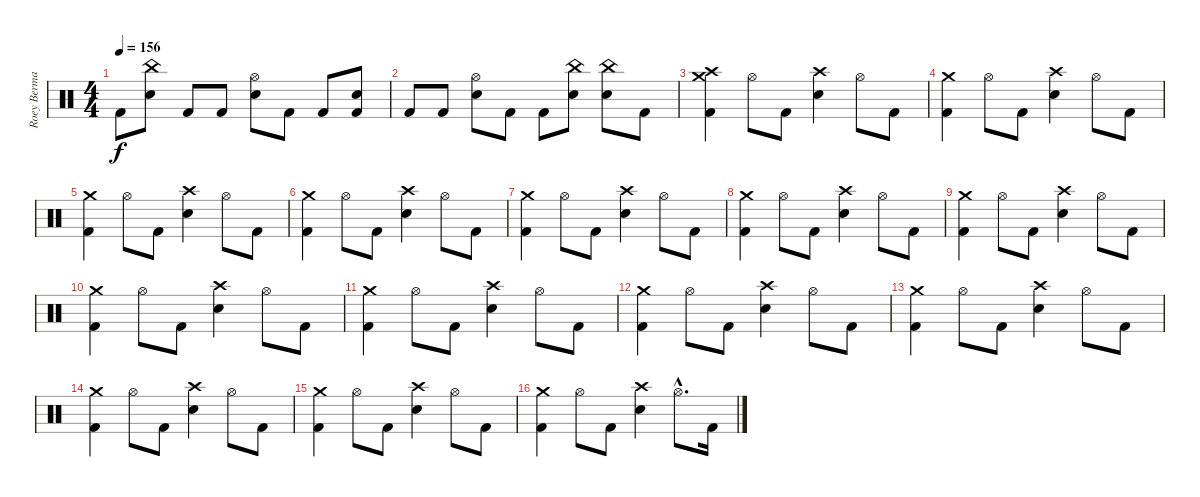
\track ("Roey Berman" "Roey Berma") {instrument percussion}
\staff {score}
\articulation defaults
\ts (4 4)
\tempo 156
\clef neutral
\ks c "Kick (hit) 2".8{dy f}
("China (hit)" "Electric Snare (hit)").8 "Kick (hit) 2".8 "Kick (hit) 2".8 ("Hi-Hat (open)" "Electric Snare (hit)").8 "Kick (hit) 2".8 "Kick (hit) 2".8 ("Snare (hit) 2" "Kick (hit) 2").8 |
"Kick (hit) 2".8 "Kick (hit) 2".8 ("Hi-Hat (open)" "Electric Snare (hit)").8 "Kick (hit) 2".8 "Kick (hit) 2".8 ("China (hit)" "Electric Snare (hit)").8 ("China (hit)" "Electric Snare (hit)").8 "Kick (hit) 2".8 |
("Crash medium (hit)" "Crash high (hit)" "Kick (hit) 2").4 "Hi-Hat (open)".8 "Kick (hit) 2".8 ("Crash high (hit)" "Electric Snare (hit)").4 "Hi-Hat (open)".8 "Kick (hit) 2".8 |
("Crash medium (hit)" "Kick (hit) 2").4 "Hi-Hat (open)".8 "Kick (hit) 2".8 ("Crash high (hit)" "Electric Snare (hit)").4 "Hi-Hat (open)".8 "Kick (hit) 2".8 |
("Crash medium (hit)" "Kick (hit) 2").4 "Hi-Hat (open)".8 "Kick (hit) 2".8 ("Crash high (hit)" "Electric Snare (hit)").4 "Hi-Hat (open)".8 "Kick (hit) 2".8 |
("Crash medium (hit)" "Kick (hit) 2").4 "Hi-Hat (open)".8 "Kick (hit) 2".8 ("Crash high (hit)" "Electric Snare (hit)").4 "Hi-Hat (open)".8 "Kick (hit) 2".8 |
("Crash medium (hit)" "Kick (hit) 2").4 "Hi-Hat (open)".8 "Kick (hit) 2".8 ("Crash high (hit)" "Electric Snare (hit)").4 "Hi-Hat (open)".8 "Kick (hit) 2".8 |
("Crash medium (hit)" "Kick (hit) 2").4 "Hi-Hat (open)".8 "Kick (hit) 2".8 ("Crash high (hit)" "Electric Snare (hit)").4 "Hi-Hat (open)".8 "Kick (hit) 2".8 |
("Crash medium (hit)" "Kick (hit) 2").4 "Hi-Hat (open)".8 "Kick (hit) 2".8 ("Crash high (hit)" "Electric Snare (hit)").4 "Hi-Hat (open)".8 "Kick (hit) 2".8 |
("Crash medium (hit)" "Kick (hit) 2").4 "Hi-Hat (open)".8 "Kick (hit) 2".8 ("Crash high (hit)" "Electric Snare (hit)").4 "Hi-Hat (open)".8 "Kick (hit) 2".8 |
("Crash medium (hit)" "Kick (hit) 2").4 "Hi-Hat (open)".8 "Kick (hit) 2".8 ("Crash high (hit)" "Electric Snare (hit)").4 "Hi-Hat (open)".8 "Kick (hit) 2".8 |
("Crash medium (hit)" "Kick (hit) 2").4 "Hi-Hat (open)".8 "Kick (hit) 2".8 ("Crash high (hit)" "Electric Snare (hit)").4 "Hi-Hat (open)".8 "Kick (hit) 2".8 |
("Crash medium (hit)" "Kick (hit) 2").4 "Hi-Hat (open)".8 "Kick (hit) 2".8 ("Crash high (hit)" "Electric Snare (hit)").4 "Hi-Hat (open)".8 "Kick (hit) 2".8 |
("Crash medium (hit)" "Kick (hit) 2").4 "Hi-Hat (open)".8 "Kick (hit) 2".8 ("Crash high (hit)" "Electric Snare (hit)").4 "Hi-Hat (open)".8 "Kick (hit) 2".8 |
("Crash medium (hit)" "Kick (hit) 2").4 "Hi-Hat (open)".8 "Kick (hit) 2".8 ("Crash high (hit)" "Electric Snare (hit)").4 "Hi-Hat (open)".8 "Kick (hit) 2".8 |
("Crash medium (hit)" "Kick (hit) 2").4 "Hi-Hat (open)".8 "Kick (hit) 2".8 ("Crash high (hit)" "Electric Snare (hit)").4 "Hi-Hat (open)"{hac}.8{d} "Kick (hit) 2".16
